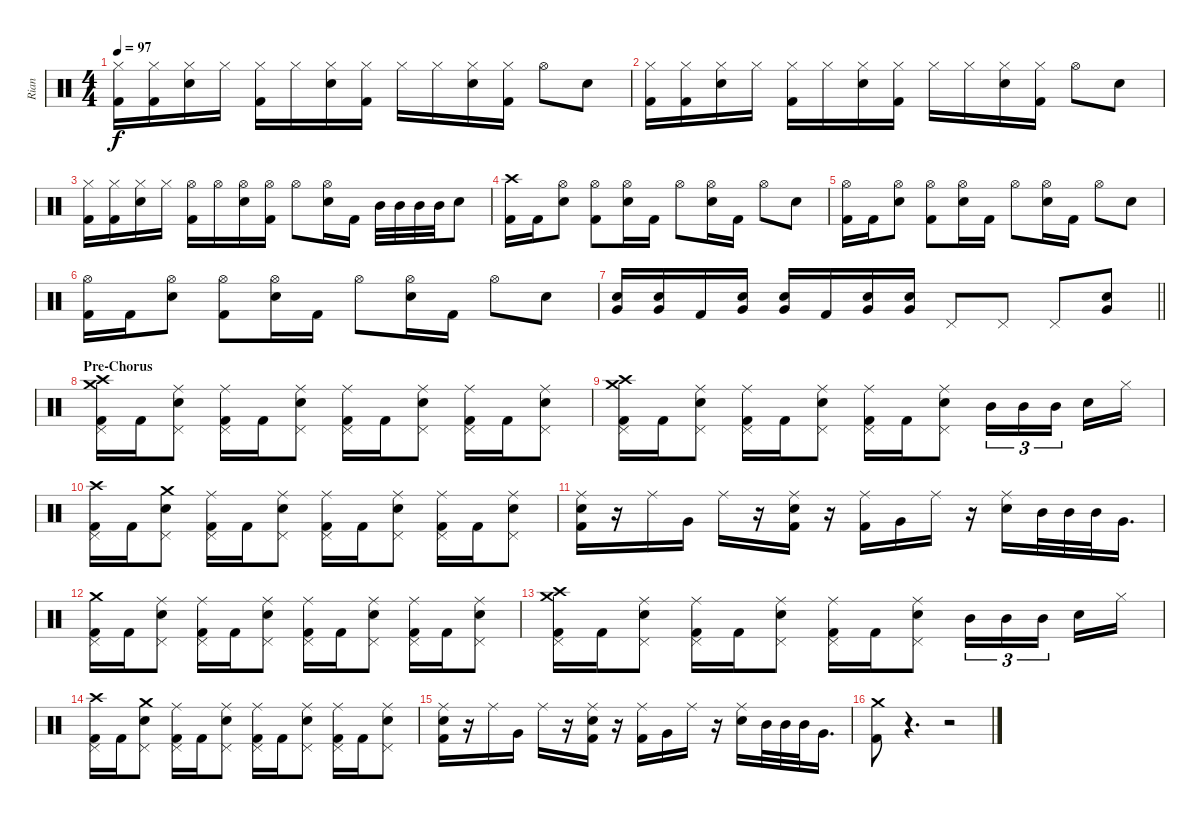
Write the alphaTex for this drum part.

\track ("Rian" "Rian") {instrument percussion}
\staff {score}
\articulation defaults
\ts (4 4)
\tempo 97
\clef neutral
\ks c
("Hi-Hat (closed)" "Kick (hit) 2").16{dy f} ("Hi-Hat (closed)" "Kick (hit) 2").16 ("Hi-Hat (closed)" "Electric Snare (hit)").16 "Hi-Hat (closed)".16 ("Hi-Hat (closed)" "Kick (hit) 2").16 "Hi-Hat (closed)".16 ("Hi-Hat (closed)" "Electric Snare (hit)").16 ("Hi-Hat (closed)" "Kick (hit) 2").16 "Hi-Hat (closed)".16 "Hi-Hat (closed)".16 ("Hi-Hat (closed)" "Electric Snare (hit)").16 ("Hi-Hat (closed)" "Kick (hit) 2").16 "Hi-Hat (open)".8 "Electric Snare (hit)".8 |
("Hi-Hat (closed)" "Kick (hit) 2").16 ("Hi-Hat (closed)" "Kick (hit) 2").16 ("Hi-Hat (closed)" "Electric Snare (hit)").16 "Hi-Hat (closed)".16 ("Hi-Hat (closed)" "Kick (hit) 2").16 "Hi-Hat (closed)".16 ("Hi-Hat (closed)" "Electric Snare (hit)").16 ("Hi-Hat (closed)" "Kick (hit) 2").16 "Hi-Hat (closed)".16 "Hi-Hat (closed)".16 ("Hi-Hat (closed)" "Electric Snare (hit)").16 ("Hi-Hat (closed)" "Kick (hit) 2").16 "Hi-Hat (open)".8 "Electric Snare (hit)".8 |
("Hi-Hat (closed)" "Kick (hit) 2").16 ("Hi-Hat (closed)" "Kick (hit) 2").16 ("Hi-Hat (closed)" "Electric Snare (hit)").16 "Hi-Hat (closed)".16 ("Hi-Hat (open)" "Kick (hit) 2").16 "Hi-Hat (open)".16 ("Hi-Hat (open)" "Electric Snare (hit)").16 ("Hi-Hat (open)" "Kick (hit) 2").16 "Hi-Hat (open)".8 ("Hi-Hat (open)" "Electric Snare (hit)").16 "Kick (hit) 2".16 "Mid Tom (hit)".32 "Mid Tom (hit)".32 "Mid Tom (hit)".32 "Mid Tom (hit)".32 "Electric Snare (hit)".8 |
("Crash high (hit)" "Kick (hit) 2").16 "Kick (hit) 2".16 ("Hi-Hat (open)" "Electric Snare (hit)").8 ("Hi-Hat (open)" "Kick (hit) 2").8 ("Hi-Hat (open)" "Electric Snare (hit)").16 "Kick (hit) 2".16 "Hi-Hat (open)".8 ("Hi-Hat (open)" "Electric Snare (hit)").16 "Kick (hit) 2".16 "Hi-Hat (open)".8 "Electric Snare (hit)".8 |
("Hi-Hat (open)" "Kick (hit) 2").16 "Kick (hit) 2".16 ("Hi-Hat (open)" "Electric Snare (hit)").8 ("Hi-Hat (open)" "Kick (hit) 2").8 ("Hi-Hat (open)" "Electric Snare (hit)").16 "Kick (hit) 2".16 "Hi-Hat (open)".8 ("Hi-Hat (open)" "Electric Snare (hit)").16 "Kick (hit) 2".16 "Hi-Hat (open)".8 "Electric Snare (hit)".8 |
("Hi-Hat (open)" "Kick (hit) 2").16 "Kick (hit) 2".16 ("Hi-Hat (open)" "Electric Snare (hit)").8 ("Hi-Hat (open)" "Kick (hit) 2").8 ("Hi-Hat (open)" "Electric Snare (hit)").16 "Kick (hit) 2".16 "Hi-Hat (open)".8 ("Hi-Hat (open)" "Electric Snare (hit)").16 "Kick (hit) 2".16 "Hi-Hat (open)".8 "Electric Snare (hit)".8 |
\barLineRight lightlight
("Very Low Tom (hit)" "Electric Snare (hit)").16 ("Very Low Tom (hit)" "Electric Snare (hit)").16 "Kick (hit) 2".16 ("Very Low Tom (hit)" "Electric Snare (hit)").16 ("Very Low Tom (hit)" "Electric Snare (hit)").16 "Kick (hit) 2".16 ("Very Low Tom (hit)" "Electric Snare (hit)").16 ("Very Low Tom (hit)" "Electric Snare (hit)").16 "Pedal Hi-Hat (hit)".8 "Pedal Hi-Hat (hit)".8 "Pedal Hi-Hat (hit)".8 ("Very Low Tom (hit)" "Electric Snare (hit)").8 |
\section ("" "Pre-Chorus")
("Crash medium (hit)" "Crash high (hit)" "Pedal Hi-Hat (hit)" "Kick (hit) 2").16 "Kick (hit) 2".16 ("Ride (middle)" "Pedal Hi-Hat (hit)" "Electric Snare (hit)").8 ("Ride (middle)" "Pedal Hi-Hat (hit)" "Kick (hit) 2").16 "Kick (hit) 2".16 ("Ride (middle)" "Pedal Hi-Hat (hit)" "Electric Snare (hit)").8 ("Ride (middle)" "Pedal Hi-Hat (hit)" "Kick (hit) 2").16 "Kick (hit) 2".16 ("Ride (middle)" "Pedal Hi-Hat (hit)" "Electric Snare (hit)").8 ("Ride (middle)" "Pedal Hi-Hat (hit)" "Kick (hit) 2").16 "Kick (hit) 2".16 ("Ride (middle)" "Pedal Hi-Hat (hit)" "Electric Snare (hit)").8 |
("Crash medium (hit)" "Crash high (hit)" "Pedal Hi-Hat (hit)" "Kick (hit) 2").16 "Kick (hit) 2".16 ("Ride (middle)" "Pedal Hi-Hat (hit)" "Electric Snare (hit)").8 ("Ride (middle)" "Pedal Hi-Hat (hit)" "Kick (hit) 2").16 "Kick (hit) 2".16 ("Ride (middle)" "Pedal Hi-Hat (hit)" "Electric Snare (hit)").8 ("Ride (middle)" "Pedal Hi-Hat (hit)" "Kick (hit) 2").16 "Kick (hit) 2".16 ("Ride (middle)" "Pedal Hi-Hat (hit)" "Electric Snare (hit)").8 "Mid Tom (hit)".16{tu (3 2)} "Mid Tom (hit)".16{tu (3 2)} "Mid Tom (hit)".16{tu (3 2) beam splitsecondary} "Electric Snare (hit)".16 "Hi-Hat (closed)".16 |
("Crash high (hit)" "Pedal Hi-Hat (hit)" "Kick (hit) 2").16 "Kick (hit) 2".16 ("Crash medium (hit)" "Pedal Hi-Hat (hit)" "Electric Snare (hit)").8 ("Ride (middle)" "Pedal Hi-Hat (hit)" "Kick (hit) 2").16 "Kick (hit) 2".16 ("Ride (middle)" "Pedal Hi-Hat (hit)" "Electric Snare (hit)").8 ("Ride (middle)" "Pedal Hi-Hat (hit)" "Kick (hit) 2").16 "Kick (hit) 2".16 ("Ride (middle)" "Pedal Hi-Hat (hit)" "Electric Snare (hit)").8 ("Ride (middle)" "Pedal Hi-Hat (hit)" "Kick (hit) 2").16 "Kick (hit) 2".16 ("Ride (middle)" "Pedal Hi-Hat (hit)" "Electric Snare (hit)").8 |
("Ride (middle)" "Electric Snare (hit)" "Kick (hit) 2").16 r.16 "Ride (middle)".16 "Very Low Tom (hit)".16 "Ride (middle)".16 r.16 ("Ride (middle)" "Electric Snare (hit)" "Kick (hit) 2").16 r.16 ("Ride (middle)" "Kick (hit) 2").16 "Very Low Tom (hit)".16 "Ride (middle)".16 r.16 ("Ride (middle)" "Electric Snare (hit)").16 "Mid Tom (hit)".32 "Mid Tom (hit)".32 "Mid Tom (hit)".32 "Very Low Tom (hit)".16{d} |
("Crash medium (hit)" "Pedal Hi-Hat (hit)" "Kick (hit) 2").16 "Kick (hit) 2".16 ("Ride (middle)" "Pedal Hi-Hat (hit)" "Electric Snare (hit)").8 ("Ride (middle)" "Pedal Hi-Hat (hit)" "Kick (hit) 2").16 "Kick (hit) 2".16 ("Ride (middle)" "Pedal Hi-Hat (hit)" "Electric Snare (hit)").8 ("Ride (middle)" "Pedal Hi-Hat (hit)" "Kick (hit) 2").16 "Kick (hit) 2".16 ("Ride (middle)" "Pedal Hi-Hat (hit)" "Electric Snare (hit)").8 ("Ride (middle)" "Pedal Hi-Hat (hit)" "Kick (hit) 2").16 "Kick (hit) 2".16 ("Ride (middle)" "Pedal Hi-Hat (hit)" "Electric Snare (hit)").8 |
("Crash medium (hit)" "Crash high (hit)" "Pedal Hi-Hat (hit)" "Kick (hit) 2").16 "Kick (hit) 2".16 ("Ride (middle)" "Pedal Hi-Hat (hit)" "Electric Snare (hit)").8 ("Ride (middle)" "Pedal Hi-Hat (hit)" "Kick (hit) 2").16 "Kick (hit) 2".16 ("Ride (middle)" "Pedal Hi-Hat (hit)" "Electric Snare (hit)").8 ("Ride (middle)" "Pedal Hi-Hat (hit)" "Kick (hit) 2").16 "Kick (hit) 2".16 ("Ride (middle)" "Pedal Hi-Hat (hit)" "Electric Snare (hit)").8 "Mid Tom (hit)".16{tu (3 2)} "Mid Tom (hit)".16{tu (3 2)} "Mid Tom (hit)".16{tu (3 2) beam splitsecondary} "Electric Snare (hit)".16 "Hi-Hat (closed)".16 |
("Crash high (hit)" "Pedal Hi-Hat (hit)" "Kick (hit) 2").16 "Kick (hit) 2".16 ("Crash medium (hit)" "Pedal Hi-Hat (hit)" "Electric Snare (hit)").8 ("Ride (middle)" "Pedal Hi-Hat (hit)" "Kick (hit) 2").16 "Kick (hit) 2".16 ("Ride (middle)" "Pedal Hi-Hat (hit)" "Electric Snare (hit)").8 ("Ride (middle)" "Pedal Hi-Hat (hit)" "Kick (hit) 2").16 "Kick (hit) 2".16 ("Ride (middle)" "Pedal Hi-Hat (hit)" "Electric Snare (hit)").8 ("Ride (middle)" "Pedal Hi-Hat (hit)" "Kick (hit) 2").16 "Kick (hit) 2".16 ("Ride (middle)" "Pedal Hi-Hat (hit)" "Electric Snare (hit)").8 |
("Ride (middle)" "Electric Snare (hit)" "Kick (hit) 2").16 r.16 "Ride (middle)".16 "Very Low Tom (hit)".16 "Ride (middle)".16 r.16 ("Ride (middle)" "Electric Snare (hit)" "Kick (hit) 2").16 r.16 ("Ride (middle)" "Kick (hit) 2").16 "Very Low Tom (hit)".16 "Ride (middle)".16 r.16 ("Ride (middle)" "Electric Snare (hit)").16 "Mid Tom (hit)".32 "Mid Tom (hit)".32 "Mid Tom (hit)".32 "Very Low Tom (hit)".16{d} |
("Crash medium (hit)" "Kick (hit) 2").8 r.4{d} r.2
